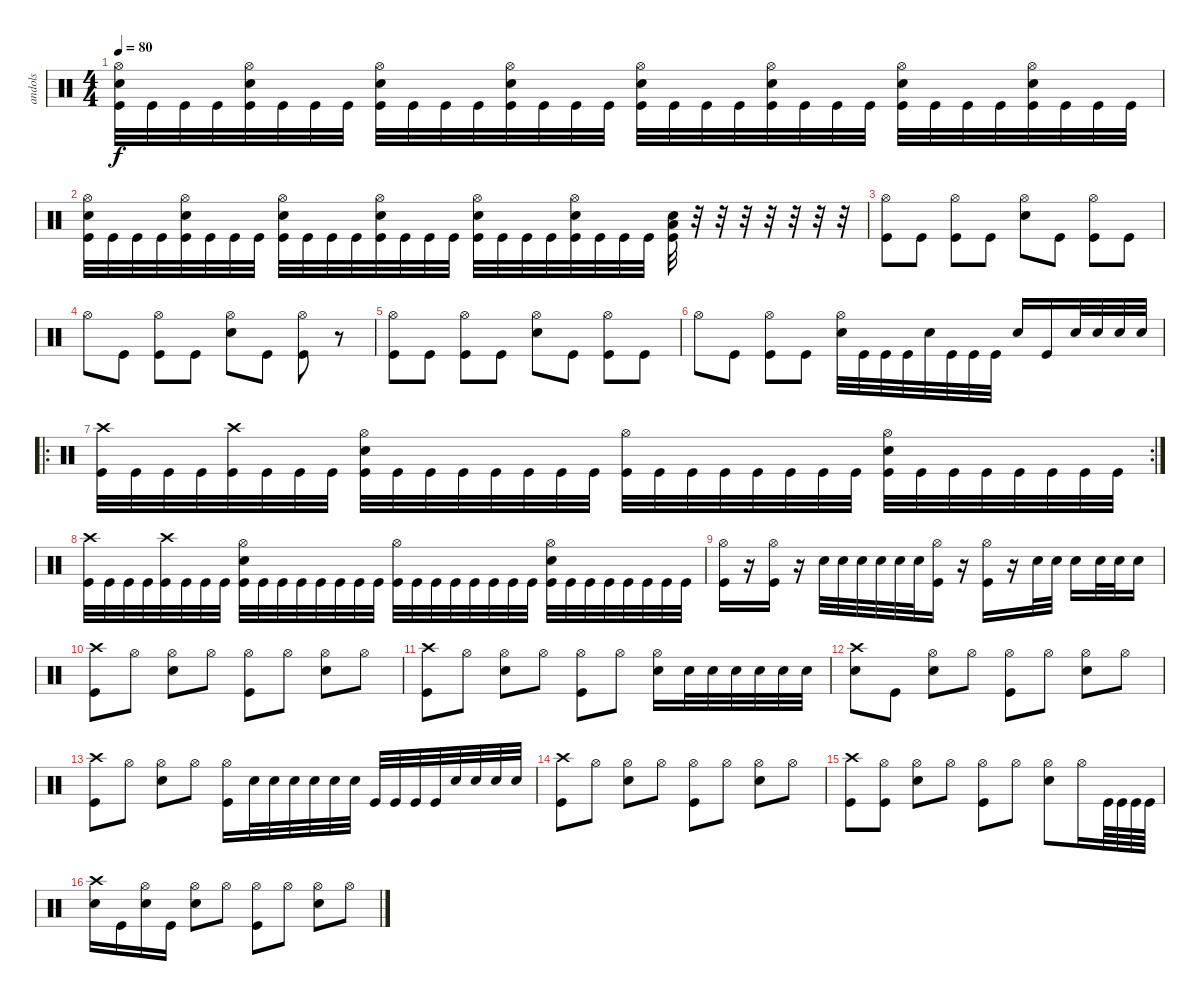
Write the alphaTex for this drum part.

\track ("andols" "andols") {instrument percussion}
\staff {score}
\articulation defaults
\ts (4 4)
\tempo 80
\clef neutral
\ks c
("Hi-Hat (open)" "Electric Snare (hit)" "Kick (hit)").32{dy f} "Kick (hit)".32 "Kick (hit)".32 "Kick (hit)".32 ("Hi-Hat (open)" "Electric Snare (hit)" "Kick (hit)").32 "Kick (hit)".32 "Kick (hit)".32 "Kick (hit)".32 ("Hi-Hat (open)" "Electric Snare (hit)" "Kick (hit)").32 "Kick (hit)".32 "Kick (hit)".32 "Kick (hit)".32 ("Hi-Hat (open)" "Electric Snare (hit)" "Kick (hit)").32 "Kick (hit)".32 "Kick (hit)".32 "Kick (hit)".32 ("Hi-Hat (open)" "Electric Snare (hit)" "Kick (hit)").32 "Kick (hit)".32 "Kick (hit)".32 "Kick (hit)".32 ("Hi-Hat (open)" "Electric Snare (hit)" "Kick (hit)").32 "Kick (hit)".32 "Kick (hit)".32 "Kick (hit)".32 ("Hi-Hat (open)" "Electric Snare (hit)" "Kick (hit)").32 "Kick (hit)".32 "Kick (hit)".32 "Kick (hit)".32 ("Hi-Hat (open)" "Electric Snare (hit)" "Kick (hit)").32 "Kick (hit)".32 "Kick (hit)".32 "Kick (hit)".32 |
("Hi-Hat (open)" "Electric Snare (hit)" "Kick (hit)").32 "Kick (hit)".32 "Kick (hit)".32 "Kick (hit)".32 ("Hi-Hat (open)" "Electric Snare (hit)" "Kick (hit)").32 "Kick (hit)".32 "Kick (hit)".32 "Kick (hit)".32 ("Hi-Hat (open)" "Electric Snare (hit)" "Kick (hit)").32 "Kick (hit)".32 "Kick (hit)".32 "Kick (hit)".32 ("Hi-Hat (open)" "Electric Snare (hit)" "Kick (hit)").32 "Kick (hit)".32 "Kick (hit)".32 "Kick (hit)".32 ("Hi-Hat (open)" "Electric Snare (hit)" "Kick (hit)").32 "Kick (hit)".32 "Kick (hit)".32 "Kick (hit)".32 ("Hi-Hat (open)" "Electric Snare (hit)" "Kick (hit)").32 "Kick (hit)".32 "Kick (hit)".32 "Kick (hit)".32 ("Low Tom (hit)" "Electric Snare (hit)" "Kick (hit)").32 r.32 r.32 r.32 r.32 r.32 r.32 r.32 |
("Hi-Hat (open)" "Kick (hit)").8 "Kick (hit)".8 ("Hi-Hat (open)" "Kick (hit)").8 "Kick (hit)".8 ("Hi-Hat (open)" "Electric Snare (hit)").8 "Kick (hit)".8 ("Hi-Hat (open)" "Kick (hit)").8 "Kick (hit)".8 |
"Hi-Hat (open)".8 "Kick (hit)".8 ("Hi-Hat (open)" "Kick (hit)").8 "Kick (hit)".8 ("Hi-Hat (open)" "Electric Snare (hit)").8 "Kick (hit)".8 ("Hi-Hat (open)" "Kick (hit)").8 r.8 |
("Hi-Hat (open)" "Kick (hit)").8 "Kick (hit)".8 ("Hi-Hat (open)" "Kick (hit)").8 "Kick (hit)".8 ("Hi-Hat (open)" "Electric Snare (hit)").8 "Kick (hit)".8 ("Hi-Hat (open)" "Kick (hit)").8 "Kick (hit)".8 |
"Hi-Hat (open)".8 "Kick (hit)".8 ("Hi-Hat (open)" "Kick (hit)").8 "Kick (hit)".8 ("Hi-Hat (open)" "Electric Snare (hit)").32 "Kick (hit)".32 "Kick (hit)".32 "Kick (hit)".32 "Electric Snare (hit)".32 "Kick (hit)".32 "Kick (hit)".32 "Kick (hit)".32 "Electric Snare (hit)".16 "Kick (hit)".16 "Electric Snare (hit)".32 "Electric Snare (hit)".32 "Electric Snare (hit)".32 "Electric Snare (hit)".32 |
\ro
\rc 2
("Crash high (hit)" "Kick (hit)").32 "Kick (hit)".32 "Kick (hit)".32 "Kick (hit)".32 ("Crash high (hit)" "Kick (hit)").32 "Kick (hit)".32 "Kick (hit)".32 "Kick (hit)".32 ("Electric Snare (hit)" "Hi-Hat (open)" "Kick (hit)").32 "Kick (hit)".32 "Kick (hit)".32 "Kick (hit)".32 "Kick (hit)".32 "Kick (hit)".32 "Kick (hit)".32 "Kick (hit)".32 ("Hi-Hat (open)" "Kick (hit)").32 "Kick (hit)".32 "Kick (hit)".32 "Kick (hit)".32 "Kick (hit)".32 "Kick (hit)".32 "Kick (hit)".32 "Kick (hit)".32 ("Electric Snare (hit)" "Hi-Hat (open)" "Kick (hit)").32 "Kick (hit)".32 "Kick (hit)".32 "Kick (hit)".32 "Kick (hit)".32 "Kick (hit)".32 "Kick (hit)".32 "Kick (hit)".32 |
("Crash high (hit)" "Kick (hit)").32 "Kick (hit)".32 "Kick (hit)".32 "Kick (hit)".32 ("Crash high (hit)" "Kick (hit)").32 "Kick (hit)".32 "Kick (hit)".32 "Kick (hit)".32 ("Electric Snare (hit)" "Hi-Hat (open)" "Kick (hit)").32 "Kick (hit)".32 "Kick (hit)".32 "Kick (hit)".32 "Kick (hit)".32 "Kick (hit)".32 "Kick (hit)".32 "Kick (hit)".32 ("Hi-Hat (open)" "Kick (hit)").32 "Kick (hit)".32 "Kick (hit)".32 "Kick (hit)".32 "Kick (hit)".32 "Kick (hit)".32 "Kick (hit)".32 "Kick (hit)".32 ("Electric Snare (hit)" "Hi-Hat (open)" "Kick (hit)").32 "Kick (hit)".32 "Kick (hit)".32 "Kick (hit)".32 "Kick (hit)".32 "Kick (hit)".32 "Kick (hit)".32 "Kick (hit)".32 |
("Hi-Hat (open)" "Kick (hit)").16 r.16 ("Hi-Hat (open)" "Kick (hit)").16 r.16 "Electric Snare (hit)".32 "Electric Snare (hit)".32 "Electric Snare (hit)".32 "Electric Snare (hit)".32 "Electric Snare (hit)".32 "Electric Snare (hit)".32 ("Hi-Hat (open)" "Kick (hit)").16 r.16 ("Hi-Hat (open)" "Kick (hit)").16 r.16 "Electric Snare (hit)".32 "Electric Snare (hit)".32 "Electric Snare (hit)".16 "Electric Snare (hit)".32 "Electric Snare (hit)".32 "Electric Snare (hit)".16 |
("Crash high (hit)" "Kick (hit)").8 "Hi-Hat (open)".8 ("Hi-Hat (open)" "Electric Snare (hit)").8 "Hi-Hat (open)".8 ("Hi-Hat (open)" "Kick (hit)").8 "Hi-Hat (open)".8 ("Hi-Hat (open)" "Electric Snare (hit)").8 "Hi-Hat (open)".8 |
("Crash high (hit)" "Kick (hit)").8 "Hi-Hat (open)".8 ("Hi-Hat (open)" "Electric Snare (hit)").8 "Hi-Hat (open)".8 ("Hi-Hat (open)" "Kick (hit)").8 "Hi-Hat (open)".8 ("Hi-Hat (open)" "Electric Snare (hit)").16 "Electric Snare (hit)".32 "Electric Snare (hit)".32 "Electric Snare (hit)".32 "Electric Snare (hit)".32 "Electric Snare (hit)".32 "Electric Snare (hit)".32 |
("Crash high (hit)" "Electric Snare (hit)").8 "Kick (hit)".8 ("Hi-Hat (open)" "Electric Snare (hit)").8 "Hi-Hat (open)".8 ("Hi-Hat (open)" "Kick (hit)").8 "Hi-Hat (open)".8 ("Hi-Hat (open)" "Electric Snare (hit)").8 "Hi-Hat (open)".8 |
("Crash high (hit)" "Kick (hit)").8 "Hi-Hat (open)".8 ("Hi-Hat (open)" "Electric Snare (hit)").8 "Hi-Hat (open)".8 ("Hi-Hat (open)" "Kick (hit)").16 "Electric Snare (hit)".32 "Electric Snare (hit)".32 "Electric Snare (hit)".32 "Electric Snare (hit)".32 "Electric Snare (hit)".32 "Electric Snare (hit)".32 "Kick (hit)".32 "Kick (hit)".32 "Kick (hit)".32 "Kick (hit)".32 "Electric Snare (hit)".32 "Electric Snare (hit)".32 "Electric Snare (hit)".32 "Electric Snare (hit)".32 |
("Crash high (hit)" "Kick (hit)").8 "Hi-Hat (open)".8 ("Hi-Hat (open)" "Electric Snare (hit)").8 "Hi-Hat (open)".8 ("Hi-Hat (open)" "Kick (hit)").8 "Hi-Hat (open)".8 ("Hi-Hat (open)" "Electric Snare (hit)").8 "Hi-Hat (open)".8 |
("Crash high (hit)" "Kick (hit)").8 ("Hi-Hat (open)" "Kick (hit)").8 ("Hi-Hat (open)" "Electric Snare (hit)").8 "Hi-Hat (open)".8 ("Hi-Hat (open)" "Kick (hit)").8 "Hi-Hat (open)".8 ("Hi-Hat (open)" "Electric Snare (hit)").8 "Hi-Hat (open)".16 "Kick (hit)".64 "Kick (hit)".64 "Kick (hit)".64 "Kick (hit)".64 |
("Crash high (hit)" "Electric Snare (hit)").16 "Kick (hit)".16 ("Hi-Hat (open)" "Electric Snare (hit)").16 "Kick (hit)".16 ("Hi-Hat (open)" "Electric Snare (hit)").8 "Hi-Hat (open)".8 ("Hi-Hat (open)" "Kick (hit)").8 "Hi-Hat (open)".8 ("Hi-Hat (open)" "Electric Snare (hit)").8 "Hi-Hat (open)".8
